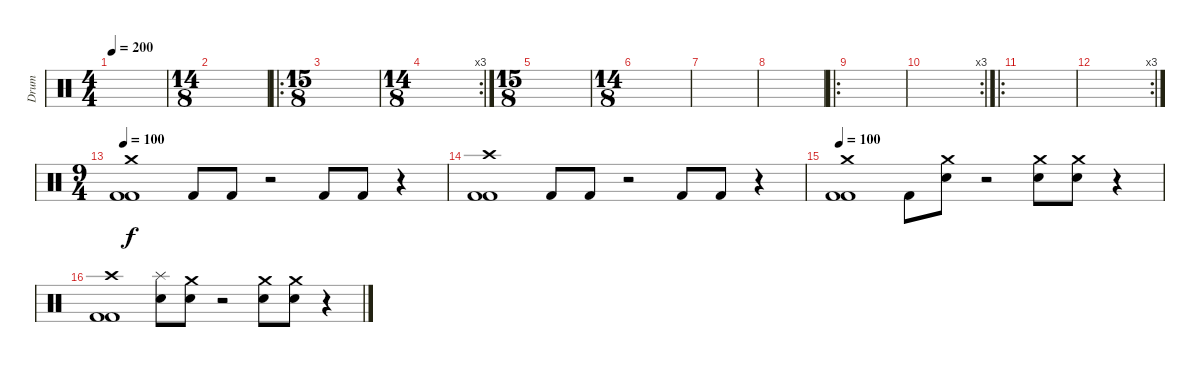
\track ("Drum" "Drum") {instrument percussion}
\staff {score}
\articulation defaults
\ts (4 4)
\tempo 200
\clef neutral
\ks c
|
\ts (14 8)
|
\ro
\ts (15 8)
|
\rc 3
\ts (14 8)
|
\ts (15 8)
|
\ts (14 8)
|
|
|
\ro
|
\rc 3
|
\ro
|
\rc 3
|
\ts (9 4)
\tempo 100
("Crash medium (hit)" "Kick (hit) 2" "Kick (hit) 2").1 "Kick (hit) 2".8 "Kick (hit) 2".8 r.2 "Kick (hit) 2".8 "Kick (hit) 2".8 r.4 |
("Crash high (hit)" "Kick (hit) 2" "Kick (hit) 2").1 "Kick (hit) 2".8 "Kick (hit) 2".8 r.2 "Kick (hit) 2".8 "Kick (hit) 2".8 r.4 |
\tempo 100
("Crash medium (hit)" "Kick (hit) 2" "Kick (hit) 2").1 "Kick (hit) 2".8 ("Crash medium (hit)" "Electric Snare (hit)").8 r.2 ("Crash medium (hit)" "Electric Snare (hit)").8 ("Crash medium (hit)" "Electric Snare (hit)").8 r.4 |
("Crash high (hit)" "Kick (hit) 2" "Kick (hit) 2").1 ("Splash (hit)" "Electric Snare (hit)").8 ("Crash medium (hit)" "Electric Snare (hit)").8 r.2 ("Crash medium (hit)" "Electric Snare (hit)").8 ("Crash medium (hit)" "Electric Snare (hit)").8 r.4
